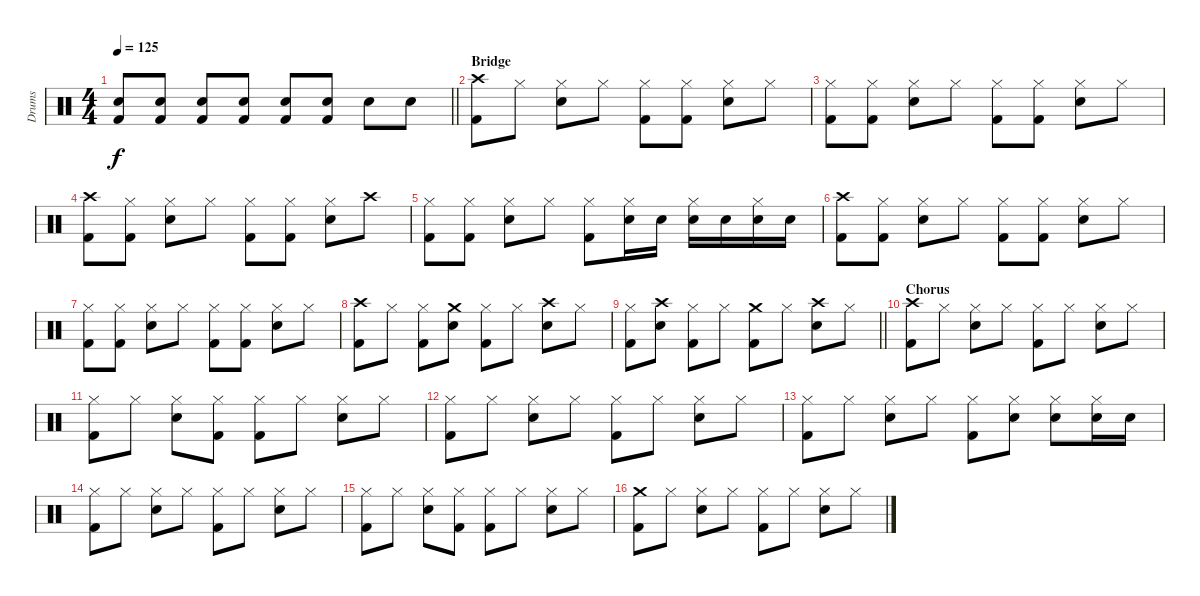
\track ("Drums" "Drums") {instrument percussion}
\staff {score}
\articulation defaults
\ts (4 4)
\tempo 125
\clef neutral
\barLineRight lightlight
\ks c
("Electric Snare (hit)" "Kick (hit) 2").8{dy f} ("Electric Snare (hit)" "Kick (hit) 2").8 ("Electric Snare (hit)" "Kick (hit) 2").8 ("Electric Snare (hit)" "Kick (hit) 2").8 ("Electric Snare (hit)" "Kick (hit) 2").8 ("Electric Snare (hit)" "Kick (hit) 2").8 "Electric Snare (hit)".8 "Electric Snare (hit)".8 |
\section ("" "Bridge")
("Crash high (hit)" "Kick (hit) 2").8 "Hi-Hat (closed)".8 ("Hi-Hat (closed)" "Electric Snare (hit)").8 "Hi-Hat (closed)".8 ("Hi-Hat (closed)" "Kick (hit) 2").8 ("Hi-Hat (closed)" "Kick (hit) 2").8 ("Hi-Hat (closed)" "Electric Snare (hit)").8 "Hi-Hat (closed)".8 |
("Hi-Hat (closed)" "Kick (hit) 2").8 ("Hi-Hat (closed)" "Kick (hit) 2").8 ("Hi-Hat (closed)" "Electric Snare (hit)").8 "Hi-Hat (closed)".8 ("Hi-Hat (closed)" "Kick (hit) 2").8 ("Hi-Hat (closed)" "Kick (hit) 2").8 ("Hi-Hat (closed)" "Electric Snare (hit)").8 "Hi-Hat (closed)".8 |
("Crash high (hit)" "Kick (hit) 2").8 ("Hi-Hat (closed)" "Kick (hit) 2").8 ("Hi-Hat (closed)" "Electric Snare (hit)").8 "Hi-Hat (closed)".8 ("Hi-Hat (closed)" "Kick (hit) 2").8 ("Hi-Hat (closed)" "Kick (hit) 2").8 ("Hi-Hat (closed)" "Electric Snare (hit)").8 "Crash high (hit)".8 |
("Hi-Hat (closed)" "Kick (hit) 2").8 ("Hi-Hat (closed)" "Kick (hit) 2").8 ("Hi-Hat (closed)" "Electric Snare (hit)").8 "Hi-Hat (closed)".8 ("Hi-Hat (closed)" "Kick (hit) 2").8 ("Hi-Hat (closed)" "Electric Snare (hit)").16 "Electric Snare (hit)".16 ("Hi-Hat (closed)" "Electric Snare (hit)").16 "Electric Snare (hit)".16 ("Hi-Hat (closed)" "Electric Snare (hit)").16 "Electric Snare (hit)".16 |
("Crash high (hit)" "Kick (hit) 2").8 ("Hi-Hat (closed)" "Kick (hit) 2").8 ("Hi-Hat (closed)" "Electric Snare (hit)").8 "Hi-Hat (closed)".8 ("Hi-Hat (closed)" "Kick (hit) 2").8 ("Hi-Hat (closed)" "Kick (hit) 2").8 ("Hi-Hat (closed)" "Electric Snare (hit)").8 "Hi-Hat (closed)".8 |
("Hi-Hat (closed)" "Kick (hit) 2").8 ("Hi-Hat (closed)" "Kick (hit) 2").8 ("Hi-Hat (closed)" "Electric Snare (hit)").8 "Hi-Hat (closed)".8 ("Hi-Hat (closed)" "Kick (hit) 2").8 ("Hi-Hat (closed)" "Kick (hit) 2").8 ("Hi-Hat (closed)" "Electric Snare (hit)").8 "Hi-Hat (closed)".8 |
("Crash high (hit)" "Kick (hit) 2").8 "Hi-Hat (closed)".8 ("Hi-Hat (closed)" "Kick (hit) 2").8 ("Crash medium (hit)" "Electric Snare (hit)").8 ("Hi-Hat (closed)" "Kick (hit) 2").8 "Hi-Hat (closed)".8 ("Crash high (hit)" "Electric Snare (hit)").8 "Hi-Hat (closed)".8 |
\barLineRight lightlight
("Hi-Hat (closed)" "Kick (hit) 2").8 ("Crash high (hit)" "Electric Snare (hit)").8 ("Hi-Hat (closed)" "Kick (hit) 2").8 "Hi-Hat (closed)".8 ("Crash medium (hit)" "Kick (hit) 2").8 "Hi-Hat (closed)".8 ("Crash high (hit)" "Electric Snare (hit)").8 "Hi-Hat (closed)".8 |
\section ("" "Chorus")
("Crash high (hit)" "Kick (hit) 2").8 "Hi-Hat (closed)".8 ("Hi-Hat (closed)" "Electric Snare (hit)").8 "Hi-Hat (closed)".8 ("Hi-Hat (closed)" "Kick (hit) 2").8 "Hi-Hat (closed)".8 ("Hi-Hat (closed)" "Electric Snare (hit)").8 "Hi-Hat (closed)".8 |
("Hi-Hat (closed)" "Kick (hit) 2").8 "Hi-Hat (closed)".8 ("Hi-Hat (closed)" "Electric Snare (hit)").8 ("Hi-Hat (closed)" "Kick (hit) 2").8 ("Hi-Hat (closed)" "Kick (hit) 2").8 "Hi-Hat (closed)".8 ("Hi-Hat (closed)" "Electric Snare (hit)").8 "Hi-Hat (closed)".8 |
("Hi-Hat (closed)" "Kick (hit) 2").8 "Hi-Hat (closed)".8 ("Hi-Hat (closed)" "Electric Snare (hit)").8 "Hi-Hat (closed)".8 ("Hi-Hat (closed)" "Kick (hit) 2").8 "Hi-Hat (closed)".8 ("Hi-Hat (closed)" "Electric Snare (hit)").8 "Hi-Hat (closed)".8 |
("Hi-Hat (closed)" "Kick (hit) 2").8 "Hi-Hat (closed)".8 ("Hi-Hat (closed)" "Electric Snare (hit)").8 "Hi-Hat (closed)".8 ("Hi-Hat (closed)" "Kick (hit) 2").8 ("Hi-Hat (closed)" "Electric Snare (hit)").8 ("Hi-Hat (closed)" "Electric Snare (hit)").8 ("Hi-Hat (closed)" "Electric Snare (hit)").16 "Snare (hit)".16 |
("Hi-Hat (closed)" "Kick (hit) 2").8 "Hi-Hat (closed)".8 ("Hi-Hat (closed)" "Electric Snare (hit)").8 "Hi-Hat (closed)".8 ("Hi-Hat (closed)" "Kick (hit) 2").8 "Hi-Hat (closed)".8 ("Hi-Hat (closed)" "Electric Snare (hit)").8 "Hi-Hat (closed)".8 |
("Hi-Hat (closed)" "Kick (hit) 2").8 "Hi-Hat (closed)".8 ("Hi-Hat (closed)" "Electric Snare (hit)").8 ("Hi-Hat (closed)" "Kick (hit) 2").8 ("Hi-Hat (closed)" "Kick (hit) 2").8 "Hi-Hat (closed)".8 ("Hi-Hat (closed)" "Electric Snare (hit)").8 "Hi-Hat (closed)".8 |
("Crash medium (hit)" "Kick (hit) 2").8 "Hi-Hat (closed)".8 ("Hi-Hat (closed)" "Electric Snare (hit)").8 "Hi-Hat (closed)".8 ("Hi-Hat (closed)" "Kick (hit) 2").8 "Hi-Hat (closed)".8 ("Hi-Hat (closed)" "Electric Snare (hit)").8 "Hi-Hat (closed)".8
